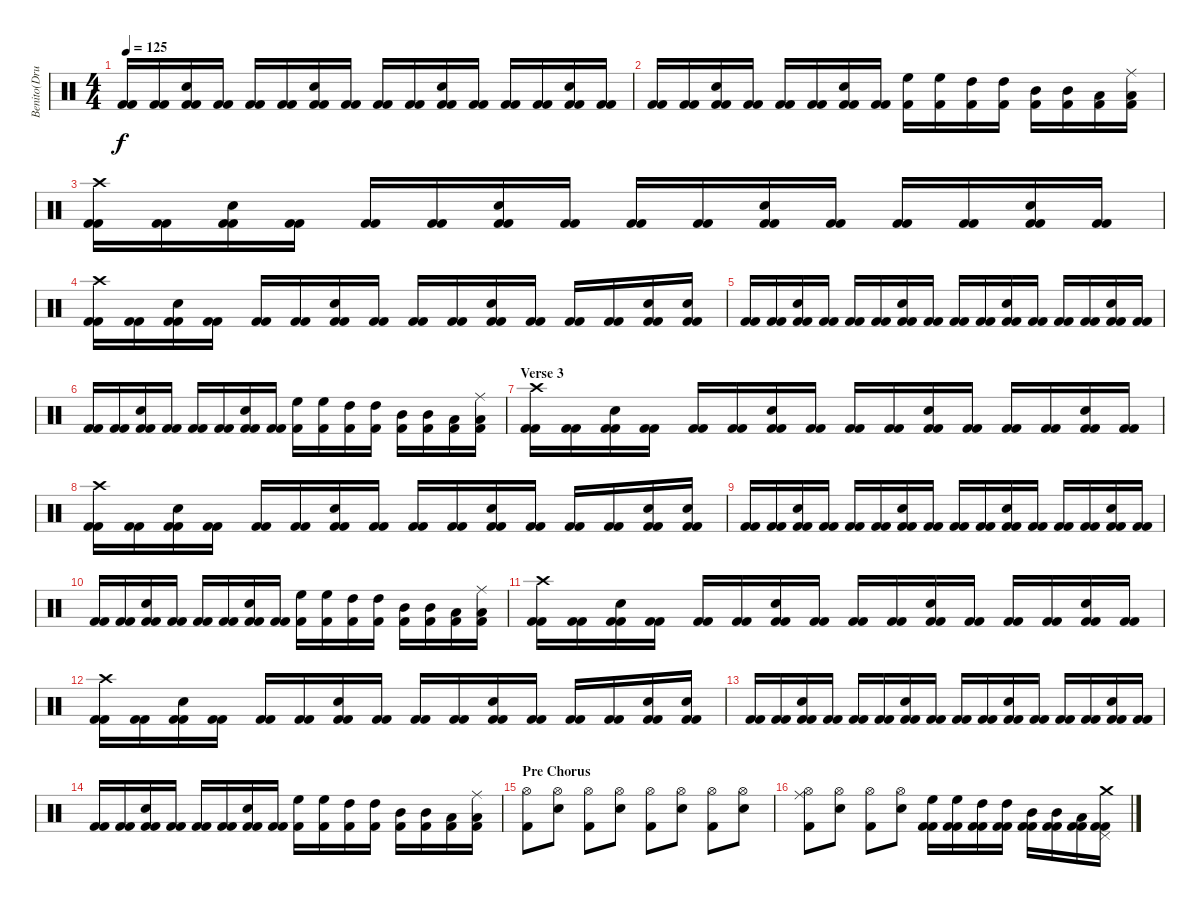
\track ("Benito(Drums)" "Benito(Dru") {instrument percussion}
\staff {score}
\articulation defaults
\ts (4 4)
\tempo 125
\clef neutral
\ks c
("Kick (hit) 2" "Kick (hit) 2").16{dy f} ("Kick (hit) 2" "Kick (hit) 2").16 ("Kick (hit) 2" "Kick (hit) 2" "Electric Snare (hit)").16 ("Kick (hit) 2" "Kick (hit) 2").16 ("Kick (hit) 2" "Kick (hit) 2").16 ("Kick (hit) 2" "Kick (hit) 2").16 ("Kick (hit) 2" "Kick (hit) 2" "Electric Snare (hit)").16 ("Kick (hit) 2" "Kick (hit) 2").16 ("Kick (hit) 2" "Kick (hit) 2").16 ("Kick (hit) 2" "Kick (hit) 2").16 ("Kick (hit) 2" "Kick (hit) 2" "Electric Snare (hit)").16 ("Kick (hit) 2" "Kick (hit) 2").16 ("Kick (hit) 2" "Kick (hit) 2").16 ("Kick (hit) 2" "Kick (hit) 2").16 ("Kick (hit) 2" "Kick (hit) 2" "Electric Snare (hit)").16 ("Kick (hit) 2" "Kick (hit) 2").16 |
("Kick (hit) 2" "Kick (hit) 2").16 ("Kick (hit) 2" "Kick (hit) 2").16 ("Kick (hit) 2" "Kick (hit) 2" "Electric Snare (hit)").16 ("Kick (hit) 2" "Kick (hit) 2").16 ("Kick (hit) 2" "Kick (hit) 2").16 ("Kick (hit) 2" "Kick (hit) 2").16 ("Kick (hit) 2" "Kick (hit) 2" "Electric Snare (hit)").16 ("Kick (hit) 2" "Kick (hit) 2").16 ("Kick (hit) 2" "High Floor Tom (hit)").16 ("Kick (hit) 2" "High Floor Tom (hit)").16 ("Kick (hit) 2" "High Tom (hit)").16 ("Kick (hit) 2" "High Tom (hit)").16 ("Kick (hit) 2" "Mid Tom (hit)").16 ("Kick (hit) 2" "Mid Tom (hit)").16 ("Kick (hit) 2" "Low Tom (hit)").16 ("Kick (hit) 2" "Low Tom (hit)" "Ride (middle)").16 |
("Kick (hit) 2" "Kick (hit) 2" "Crash high (hit)").16 ("Kick (hit) 2" "Kick (hit) 2").16 ("Kick (hit) 2" "Kick (hit) 2" "Electric Snare (hit)").16 ("Kick (hit) 2" "Kick (hit) 2").16 ("Kick (hit) 2" "Kick (hit) 2").16 ("Kick (hit) 2" "Kick (hit) 2").16 ("Kick (hit) 2" "Kick (hit) 2" "Electric Snare (hit)").16 ("Kick (hit) 2" "Kick (hit) 2").16 ("Kick (hit) 2" "Kick (hit) 2").16 ("Kick (hit) 2" "Kick (hit) 2").16 ("Kick (hit) 2" "Kick (hit) 2" "Electric Snare (hit)").16 ("Kick (hit) 2" "Kick (hit) 2").16 ("Kick (hit) 2" "Kick (hit) 2").16 ("Kick (hit) 2" "Kick (hit) 2").16 ("Kick (hit) 2" "Kick (hit) 2" "Electric Snare (hit)").16 ("Kick (hit) 2" "Kick (hit) 2").16 |
("Kick (hit) 2" "Kick (hit) 2" "Crash high (hit)").16 ("Kick (hit) 2" "Kick (hit) 2").16 ("Kick (hit) 2" "Kick (hit) 2" "Electric Snare (hit)").16 ("Kick (hit) 2" "Kick (hit) 2").16 ("Kick (hit) 2" "Kick (hit) 2").16 ("Kick (hit) 2" "Kick (hit) 2").16 ("Kick (hit) 2" "Kick (hit) 2" "Electric Snare (hit)").16 ("Kick (hit) 2" "Kick (hit) 2").16 ("Kick (hit) 2" "Kick (hit) 2").16 ("Kick (hit) 2" "Kick (hit) 2").16 ("Kick (hit) 2" "Kick (hit) 2" "Electric Snare (hit)").16 ("Kick (hit) 2" "Kick (hit) 2").16 ("Kick (hit) 2" "Kick (hit) 2").16 ("Kick (hit) 2" "Kick (hit) 2").16 ("Kick (hit) 2" "Kick (hit) 2" "Electric Snare (hit)").16 ("Kick (hit) 2" "Kick (hit) 2" "Electric Snare (hit)").16 |
("Kick (hit) 2" "Kick (hit) 2").16 ("Kick (hit) 2" "Kick (hit) 2").16 ("Kick (hit) 2" "Kick (hit) 2" "Electric Snare (hit)").16 ("Kick (hit) 2" "Kick (hit) 2").16 ("Kick (hit) 2" "Kick (hit) 2").16 ("Kick (hit) 2" "Kick (hit) 2").16 ("Kick (hit) 2" "Kick (hit) 2" "Electric Snare (hit)").16 ("Kick (hit) 2" "Kick (hit) 2").16 ("Kick (hit) 2" "Kick (hit) 2").16 ("Kick (hit) 2" "Kick (hit) 2").16 ("Kick (hit) 2" "Kick (hit) 2" "Electric Snare (hit)").16 ("Kick (hit) 2" "Kick (hit) 2").16 ("Kick (hit) 2" "Kick (hit) 2").16 ("Kick (hit) 2" "Kick (hit) 2").16 ("Kick (hit) 2" "Kick (hit) 2" "Electric Snare (hit)").16 ("Kick (hit) 2" "Kick (hit) 2").16 |
("Kick (hit) 2" "Kick (hit) 2").16 ("Kick (hit) 2" "Kick (hit) 2").16 ("Kick (hit) 2" "Kick (hit) 2" "Electric Snare (hit)").16 ("Kick (hit) 2" "Kick (hit) 2").16 ("Kick (hit) 2" "Kick (hit) 2").16 ("Kick (hit) 2" "Kick (hit) 2").16 ("Kick (hit) 2" "Kick (hit) 2" "Electric Snare (hit)").16 ("Kick (hit) 2" "Kick (hit) 2").16 ("Kick (hit) 2" "High Floor Tom (hit)").16 ("Kick (hit) 2" "High Floor Tom (hit)").16 ("Kick (hit) 2" "High Tom (hit)").16 ("Kick (hit) 2" "High Tom (hit)").16 ("Kick (hit) 2" "Mid Tom (hit)").16 ("Kick (hit) 2" "Mid Tom (hit)").16 ("Kick (hit) 2" "Low Tom (hit)").16 ("Kick (hit) 2" "Low Tom (hit)" "Ride (middle)").16 |
\section ("" "Verse 3")
("Kick (hit) 2" "Kick (hit) 2" "Crash high (hit)").16 ("Kick (hit) 2" "Kick (hit) 2").16 ("Kick (hit) 2" "Kick (hit) 2" "Electric Snare (hit)").16 ("Kick (hit) 2" "Kick (hit) 2").16 ("Kick (hit) 2" "Kick (hit) 2").16 ("Kick (hit) 2" "Kick (hit) 2").16 ("Kick (hit) 2" "Kick (hit) 2" "Electric Snare (hit)").16 ("Kick (hit) 2" "Kick (hit) 2").16 ("Kick (hit) 2" "Kick (hit) 2").16 ("Kick (hit) 2" "Kick (hit) 2").16 ("Kick (hit) 2" "Kick (hit) 2" "Electric Snare (hit)").16 ("Kick (hit) 2" "Kick (hit) 2").16 ("Kick (hit) 2" "Kick (hit) 2").16 ("Kick (hit) 2" "Kick (hit) 2").16 ("Kick (hit) 2" "Kick (hit) 2" "Electric Snare (hit)").16 ("Kick (hit) 2" "Kick (hit) 2").16 |
("Kick (hit) 2" "Kick (hit) 2" "Crash high (hit)").16 ("Kick (hit) 2" "Kick (hit) 2").16 ("Kick (hit) 2" "Kick (hit) 2" "Electric Snare (hit)").16 ("Kick (hit) 2" "Kick (hit) 2").16 ("Kick (hit) 2" "Kick (hit) 2").16 ("Kick (hit) 2" "Kick (hit) 2").16 ("Kick (hit) 2" "Kick (hit) 2" "Electric Snare (hit)").16 ("Kick (hit) 2" "Kick (hit) 2").16 ("Kick (hit) 2" "Kick (hit) 2").16 ("Kick (hit) 2" "Kick (hit) 2").16 ("Kick (hit) 2" "Kick (hit) 2" "Electric Snare (hit)").16 ("Kick (hit) 2" "Kick (hit) 2").16 ("Kick (hit) 2" "Kick (hit) 2").16 ("Kick (hit) 2" "Kick (hit) 2").16 ("Kick (hit) 2" "Kick (hit) 2" "Electric Snare (hit)").16 ("Kick (hit) 2" "Kick (hit) 2" "Electric Snare (hit)").16 |
("Kick (hit) 2" "Kick (hit) 2").16 ("Kick (hit) 2" "Kick (hit) 2").16 ("Kick (hit) 2" "Kick (hit) 2" "Electric Snare (hit)").16 ("Kick (hit) 2" "Kick (hit) 2").16 ("Kick (hit) 2" "Kick (hit) 2").16 ("Kick (hit) 2" "Kick (hit) 2").16 ("Kick (hit) 2" "Kick (hit) 2" "Electric Snare (hit)").16 ("Kick (hit) 2" "Kick (hit) 2").16 ("Kick (hit) 2" "Kick (hit) 2").16 ("Kick (hit) 2" "Kick (hit) 2").16 ("Kick (hit) 2" "Kick (hit) 2" "Electric Snare (hit)").16 ("Kick (hit) 2" "Kick (hit) 2").16 ("Kick (hit) 2" "Kick (hit) 2").16 ("Kick (hit) 2" "Kick (hit) 2").16 ("Kick (hit) 2" "Kick (hit) 2" "Electric Snare (hit)").16 ("Kick (hit) 2" "Kick (hit) 2").16 |
("Kick (hit) 2" "Kick (hit) 2").16 ("Kick (hit) 2" "Kick (hit) 2").16 ("Kick (hit) 2" "Kick (hit) 2" "Electric Snare (hit)").16 ("Kick (hit) 2" "Kick (hit) 2").16 ("Kick (hit) 2" "Kick (hit) 2").16 ("Kick (hit) 2" "Kick (hit) 2").16 ("Kick (hit) 2" "Kick (hit) 2" "Electric Snare (hit)").16 ("Kick (hit) 2" "Kick (hit) 2").16 ("Kick (hit) 2" "High Floor Tom (hit)").16 ("Kick (hit) 2" "High Floor Tom (hit)").16 ("Kick (hit) 2" "High Tom (hit)").16 ("Kick (hit) 2" "High Tom (hit)").16 ("Kick (hit) 2" "Mid Tom (hit)").16 ("Kick (hit) 2" "Mid Tom (hit)").16 ("Kick (hit) 2" "Low Tom (hit)").16 ("Kick (hit) 2" "Low Tom (hit)" "Ride (middle)").16 |
("Kick (hit) 2" "Kick (hit) 2" "Crash high (hit)").16 ("Kick (hit) 2" "Kick (hit) 2").16 ("Kick (hit) 2" "Kick (hit) 2" "Electric Snare (hit)").16 ("Kick (hit) 2" "Kick (hit) 2").16 ("Kick (hit) 2" "Kick (hit) 2").16 ("Kick (hit) 2" "Kick (hit) 2").16 ("Kick (hit) 2" "Kick (hit) 2" "Electric Snare (hit)").16 ("Kick (hit) 2" "Kick (hit) 2").16 ("Kick (hit) 2" "Kick (hit) 2").16 ("Kick (hit) 2" "Kick (hit) 2").16 ("Kick (hit) 2" "Kick (hit) 2" "Electric Snare (hit)").16 ("Kick (hit) 2" "Kick (hit) 2").16 ("Kick (hit) 2" "Kick (hit) 2").16 ("Kick (hit) 2" "Kick (hit) 2").16 ("Kick (hit) 2" "Kick (hit) 2" "Electric Snare (hit)").16 ("Kick (hit) 2" "Kick (hit) 2").16 |
("Kick (hit) 2" "Kick (hit) 2" "Crash high (hit)").16 ("Kick (hit) 2" "Kick (hit) 2").16 ("Kick (hit) 2" "Kick (hit) 2" "Electric Snare (hit)").16 ("Kick (hit) 2" "Kick (hit) 2").16 ("Kick (hit) 2" "Kick (hit) 2").16 ("Kick (hit) 2" "Kick (hit) 2").16 ("Kick (hit) 2" "Kick (hit) 2" "Electric Snare (hit)").16 ("Kick (hit) 2" "Kick (hit) 2").16 ("Kick (hit) 2" "Kick (hit) 2").16 ("Kick (hit) 2" "Kick (hit) 2").16 ("Kick (hit) 2" "Kick (hit) 2" "Electric Snare (hit)").16 ("Kick (hit) 2" "Kick (hit) 2").16 ("Kick (hit) 2" "Kick (hit) 2").16 ("Kick (hit) 2" "Kick (hit) 2").16 ("Kick (hit) 2" "Kick (hit) 2" "Electric Snare (hit)").16 ("Kick (hit) 2" "Kick (hit) 2" "Electric Snare (hit)").16 |
("Kick (hit) 2" "Kick (hit) 2").16 ("Kick (hit) 2" "Kick (hit) 2").16 ("Kick (hit) 2" "Kick (hit) 2" "Electric Snare (hit)").16 ("Kick (hit) 2" "Kick (hit) 2").16 ("Kick (hit) 2" "Kick (hit) 2").16 ("Kick (hit) 2" "Kick (hit) 2").16 ("Kick (hit) 2" "Kick (hit) 2" "Electric Snare (hit)").16 ("Kick (hit) 2" "Kick (hit) 2").16 ("Kick (hit) 2" "Kick (hit) 2").16 ("Kick (hit) 2" "Kick (hit) 2").16 ("Kick (hit) 2" "Kick (hit) 2" "Electric Snare (hit)").16 ("Kick (hit) 2" "Kick (hit) 2").16 ("Kick (hit) 2" "Kick (hit) 2").16 ("Kick (hit) 2" "Kick (hit) 2").16 ("Kick (hit) 2" "Kick (hit) 2" "Electric Snare (hit)").16 ("Kick (hit) 2" "Kick (hit) 2").16 |
("Kick (hit) 2" "Kick (hit) 2").16 ("Kick (hit) 2" "Kick (hit) 2").16 ("Kick (hit) 2" "Kick (hit) 2" "Electric Snare (hit)").16 ("Kick (hit) 2" "Kick (hit) 2").16 ("Kick (hit) 2" "Kick (hit) 2").16 ("Kick (hit) 2" "Kick (hit) 2").16 ("Kick (hit) 2" "Kick (hit) 2" "Electric Snare (hit)").16 ("Kick (hit) 2" "Kick (hit) 2").16 ("Kick (hit) 2" "High Floor Tom (hit)").16 ("Kick (hit) 2" "High Floor Tom (hit)").16 ("Kick (hit) 2" "High Tom (hit)").16 ("Kick (hit) 2" "High Tom (hit)").16 ("Kick (hit) 2" "Mid Tom (hit)").16 ("Kick (hit) 2" "Mid Tom (hit)").16 ("Kick (hit) 2" "Low Tom (hit)").16 ("Kick (hit) 2" "Low Tom (hit)" "Ride (middle)").16 |
\section ("" "Pre Chorus")
("Kick (hit) 2" "Hi-Hat (open)").8 ("Hi-Hat (open)" "Electric Snare (hit)").8 ("Kick (hit) 2" "Hi-Hat (open)").8 ("Hi-Hat (open)" "Electric Snare (hit)").8 ("Kick (hit) 2" "Hi-Hat (open)").8 ("Hi-Hat (open)" "Electric Snare (hit)").8 ("Kick (hit) 2" "Hi-Hat (open)").8 ("Hi-Hat (open)" "Electric Snare (hit)").8 |
("Kick (hit) 2" "Hi-Hat (open)" "Ride (middle)").8 ("Hi-Hat (open)" "Snare (hit) 2").8 ("Kick (hit) 2" "Hi-Hat (open)").8 ("Hi-Hat (open)" "Snare (hit) 2").8 ("Kick (hit) 2" "Kick (hit) 2" "High Floor Tom (hit)").16 ("Kick (hit) 2" "Kick (hit) 2" "High Floor Tom (hit)").16 ("Kick (hit) 2" "Kick (hit) 2" "High Tom (hit)").16 ("Kick (hit) 2" "Kick (hit) 2" "High Tom (hit)").16 ("Kick (hit) 2" "Kick (hit) 2" "Mid Tom (hit)").16 ("Kick (hit) 2" "Kick (hit) 2" "Mid Tom (hit)").16 ("Kick (hit) 2" "Kick (hit) 2" "Low Tom (hit)").16 ("Kick (hit) 2" "Kick (hit) 2" "Pedal Hi-Hat (hit)" "Crash medium (hit)").16
